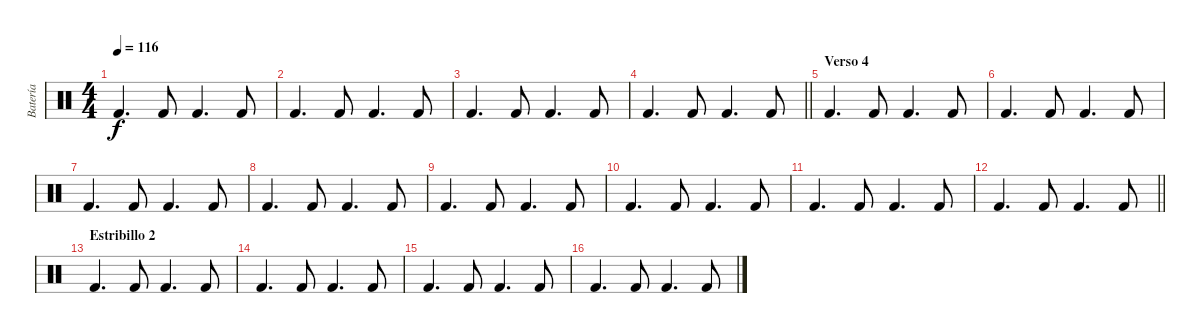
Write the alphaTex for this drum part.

\track ("Batería" "Batería") {instrument percussion}
\staff {score}
\articulation defaults
\ts (4 4)
\tempo 116
\clef neutral
\ks c "Kick (hit) 2".4{d dy f} "Kick (hit) 2".8 "Kick (hit) 2".4{d} "Kick (hit) 2".8
|
"Kick (hit) 2".4{d} "Kick (hit) 2".8 "Kick (hit) 2".4{d} "Kick (hit) 2".8 |
"Kick (hit) 2".4{d} "Kick (hit) 2".8 "Kick (hit) 2".4{d} "Kick (hit) 2".8 |
\barLineRight lightlight "Kick (hit) 2".4{d} "Kick (hit) 2".8 "Kick (hit) 2".4{d} "Kick (hit) 2".8
|
\section ("" "Verso 4")
"Kick (hit) 2".4{d} "Kick (hit) 2".8 "Kick (hit) 2".4{d} "Kick (hit) 2".8 |
"Kick (hit) 2".4{d} "Kick (hit) 2".8 "Kick (hit) 2".4{d} "Kick (hit) 2".8 |
"Kick (hit) 2".4{d} "Kick (hit) 2".8 "Kick (hit) 2".4{d} "Kick (hit) 2".8 |
"Kick (hit) 2".4{d} "Kick (hit) 2".8 "Kick (hit) 2".4{d} "Kick (hit) 2".8 |
"Kick (hit) 2".4{d} "Kick (hit) 2".8 "Kick (hit) 2".4{d} "Kick (hit) 2".8 |
"Kick (hit) 2".4{d} "Kick (hit) 2".8 "Kick (hit) 2".4{d} "Kick (hit) 2".8 |
"Kick (hit) 2".4{d} "Kick (hit) 2".8 "Kick (hit) 2".4{d} "Kick (hit) 2".8 |
\barLineRight lightlight "Kick (hit) 2".4{d} "Kick (hit) 2".8 "Kick (hit) 2".4{d} "Kick (hit) 2".8
|
\section ("" "Estribillo 2")
"Kick (hit) 2".4{d} "Kick (hit) 2".8 "Kick (hit) 2".4{d} "Kick (hit) 2".8 |
"Kick (hit) 2".4{d} "Kick (hit) 2".8 "Kick (hit) 2".4{d} "Kick (hit) 2".8 |
"Kick (hit) 2".4{d} "Kick (hit) 2".8 "Kick (hit) 2".4{d} "Kick (hit) 2".8 |
"Kick (hit) 2".4{d} "Kick (hit) 2".8 "Kick (hit) 2".4{d} "Kick (hit) 2".8
